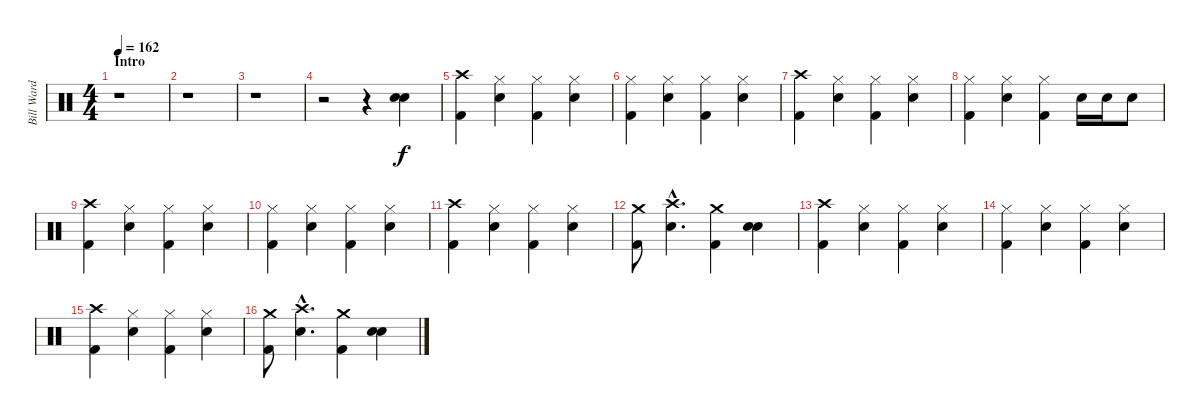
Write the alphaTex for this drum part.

\track ("Bill Ward" "Bill Ward") {instrument percussion}
\staff {score}
\articulation defaults
\ts (4 4)
\section ("" "Intro")
\tempo 162
\clef neutral
\ks c
r.1{dy f} |
r.1 |
r.1 |
r.2 r.4 ("Snare (hit) 2" "Snare (hit) 2").4{bd 480} |
("Crash high (hit)" "Kick (hit) 2").4 ("Hi-Hat (closed)" "Snare (hit) 2").4 ("Hi-Hat (closed)" "Kick (hit) 2").4 ("Hi-Hat (closed)" "Snare (hit) 2").4 |
("Hi-Hat (closed)" "Kick (hit) 2").4 ("Hi-Hat (closed)" "Snare (hit) 2").4 ("Hi-Hat (closed)" "Kick (hit) 2").4 ("Hi-Hat (closed)" "Snare (hit) 2").4 |
("Crash high (hit)" "Kick (hit) 2").4 ("Hi-Hat (closed)" "Snare (hit) 2").4 ("Hi-Hat (closed)" "Kick (hit) 2").4 ("Hi-Hat (closed)" "Snare (hit) 2").4 |
("Hi-Hat (closed)" "Kick (hit) 2").4 ("Hi-Hat (closed)" "Snare (hit) 2").4 ("Hi-Hat (closed)" "Kick (hit) 2").4 "Snare (hit) 2".16 "Snare (hit) 2".16 "Snare (hit) 2".8 |
("Crash high (hit)" "Kick (hit) 2").4 ("Hi-Hat (closed)" "Snare (hit) 2").4 ("Hi-Hat (closed)" "Kick (hit) 2").4 ("Hi-Hat (closed)" "Snare (hit) 2").4 |
("Hi-Hat (closed)" "Kick (hit) 2").4 ("Hi-Hat (closed)" "Snare (hit) 2").4 ("Hi-Hat (closed)" "Kick (hit) 2").4 ("Hi-Hat (closed)" "Snare (hit) 2").4 |
("Crash high (hit)" "Kick (hit) 2").4 ("Hi-Hat (closed)" "Snare (hit) 2").4 ("Hi-Hat (closed)" "Kick (hit) 2").4 ("Hi-Hat (closed)" "Snare (hit) 2").4 |
("Kick (hit) 2" "Crash medium (hit)").8 ("Snare (hit) 2"{hac} "Crash high (hit)"{hac}).4{d} ("Kick (hit) 2" "Crash medium (hit)").4 ("Snare (hit) 2" "Snare (hit) 2").4{bd 480} |
("Crash high (hit)" "Kick (hit) 2").4 ("Hi-Hat (closed)" "Snare (hit) 2").4 ("Hi-Hat (closed)" "Kick (hit) 2").4 ("Hi-Hat (closed)" "Snare (hit) 2").4 |
("Hi-Hat (closed)" "Kick (hit) 2").4 ("Hi-Hat (closed)" "Snare (hit) 2").4 ("Hi-Hat (closed)" "Kick (hit) 2").4 ("Hi-Hat (closed)" "Snare (hit) 2").4 |
("Crash high (hit)" "Kick (hit) 2").4 ("Hi-Hat (closed)" "Snare (hit) 2").4 ("Hi-Hat (closed)" "Kick (hit) 2").4 ("Hi-Hat (closed)" "Snare (hit) 2").4 |
("Kick (hit) 2" "Crash medium (hit)").8 ("Snare (hit) 2"{hac} "Crash high (hit)"{hac}).4{d} ("Kick (hit) 2" "Crash medium (hit)").4 ("Snare (hit) 2" "Snare (hit) 2").4{bd 480}
